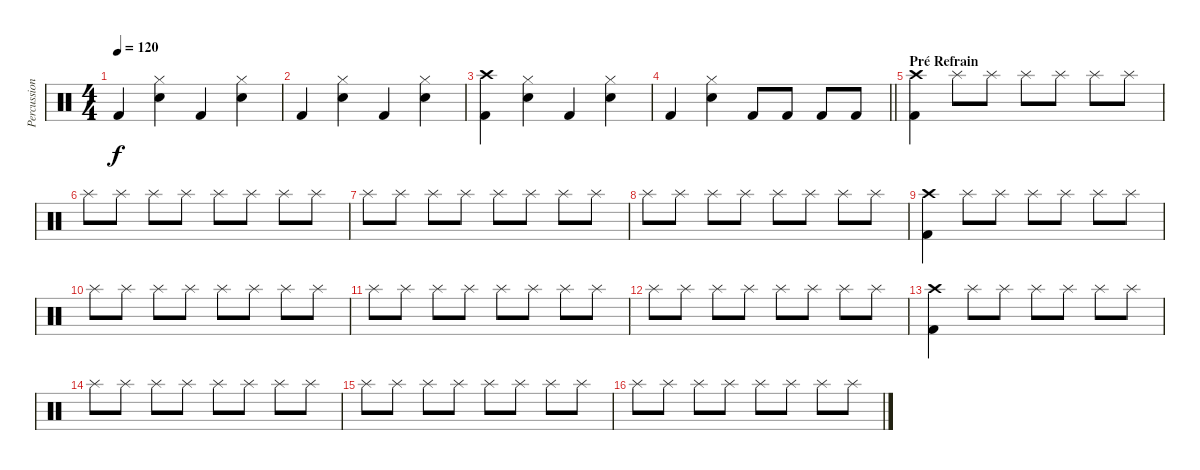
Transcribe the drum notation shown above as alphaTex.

\track ("Percussions" "Percussion") {instrument percussion}
\staff {score}
\articulation defaults
\ts (4 4)
\tempo 120
\clef neutral
\ks c "Kick (hit) 2".4{dy f}
("Hi-Hat (closed)" "Snare (hit) 2").4 "Kick (hit) 2".4 ("Hi-Hat (closed)" "Snare (hit) 2").4 |
"Kick (hit) 2".4 ("Hi-Hat (closed)" "Snare (hit) 2").4 "Kick (hit) 2".4 ("Hi-Hat (closed)" "Snare (hit) 2").4 |
("Crash high (hit)" "Kick (hit) 2").4 ("Hi-Hat (closed)" "Snare (hit) 2").4 "Kick (hit) 2".4 ("Hi-Hat (closed)" "Snare (hit) 2").4 |
\barLineRight lightlight "Kick (hit) 2".4
("Hi-Hat (closed)" "Snare (hit) 2").4 "Kick (hit) 2".8 "Kick (hit) 2".8 "Kick (hit) 2".8 "Kick (hit) 2".8 |
\section ("" "Pré Refrain")
("Crash high (hit)" "Kick (hit) 2").4 "Splash (hit)".8 "Splash (hit)".8 "Splash (hit)".8 "Splash (hit)".8 "Splash (hit)".8 "Splash (hit)".8 |
"Splash (hit)".8 "Splash (hit)".8 "Splash (hit)".8 "Splash (hit)".8 "Splash (hit)".8 "Splash (hit)".8 "Splash (hit)".8 "Splash (hit)".8 |
"Splash (hit)".8 "Splash (hit)".8 "Splash (hit)".8 "Splash (hit)".8 "Splash (hit)".8 "Splash (hit)".8 "Splash (hit)".8 "Splash (hit)".8 |
"Splash (hit)".8 "Splash (hit)".8 "Splash (hit)".8 "Splash (hit)".8 "Splash (hit)".8 "Splash (hit)".8 "Splash (hit)".8 "Splash (hit)".8 |
("Crash high (hit)" "Kick (hit) 2").4 "Splash (hit)".8 "Splash (hit)".8 "Splash (hit)".8 "Splash (hit)".8 "Splash (hit)".8 "Splash (hit)".8 |
"Splash (hit)".8 "Splash (hit)".8 "Splash (hit)".8 "Splash (hit)".8 "Splash (hit)".8 "Splash (hit)".8 "Splash (hit)".8 "Splash (hit)".8 |
"Splash (hit)".8 "Splash (hit)".8 "Splash (hit)".8 "Splash (hit)".8 "Splash (hit)".8 "Splash (hit)".8 "Splash (hit)".8 "Splash (hit)".8 |
"Splash (hit)".8 "Splash (hit)".8 "Splash (hit)".8 "Splash (hit)".8 "Splash (hit)".8 "Splash (hit)".8 "Splash (hit)".8 "Splash (hit)".8 |
("Crash high (hit)" "Kick (hit) 2").4 "Splash (hit)".8 "Splash (hit)".8 "Splash (hit)".8 "Splash (hit)".8 "Splash (hit)".8 "Splash (hit)".8 |
"Splash (hit)".8 "Splash (hit)".8 "Splash (hit)".8 "Splash (hit)".8 "Splash (hit)".8 "Splash (hit)".8 "Splash (hit)".8 "Splash (hit)".8 |
"Splash (hit)".8 "Splash (hit)".8 "Splash (hit)".8 "Splash (hit)".8 "Splash (hit)".8 "Splash (hit)".8 "Splash (hit)".8 "Splash (hit)".8 |
"Splash (hit)".8 "Splash (hit)".8 "Splash (hit)".8 "Splash (hit)".8 "Splash (hit)".8 "Splash (hit)".8 "Splash (hit)".8 "Splash (hit)".8
